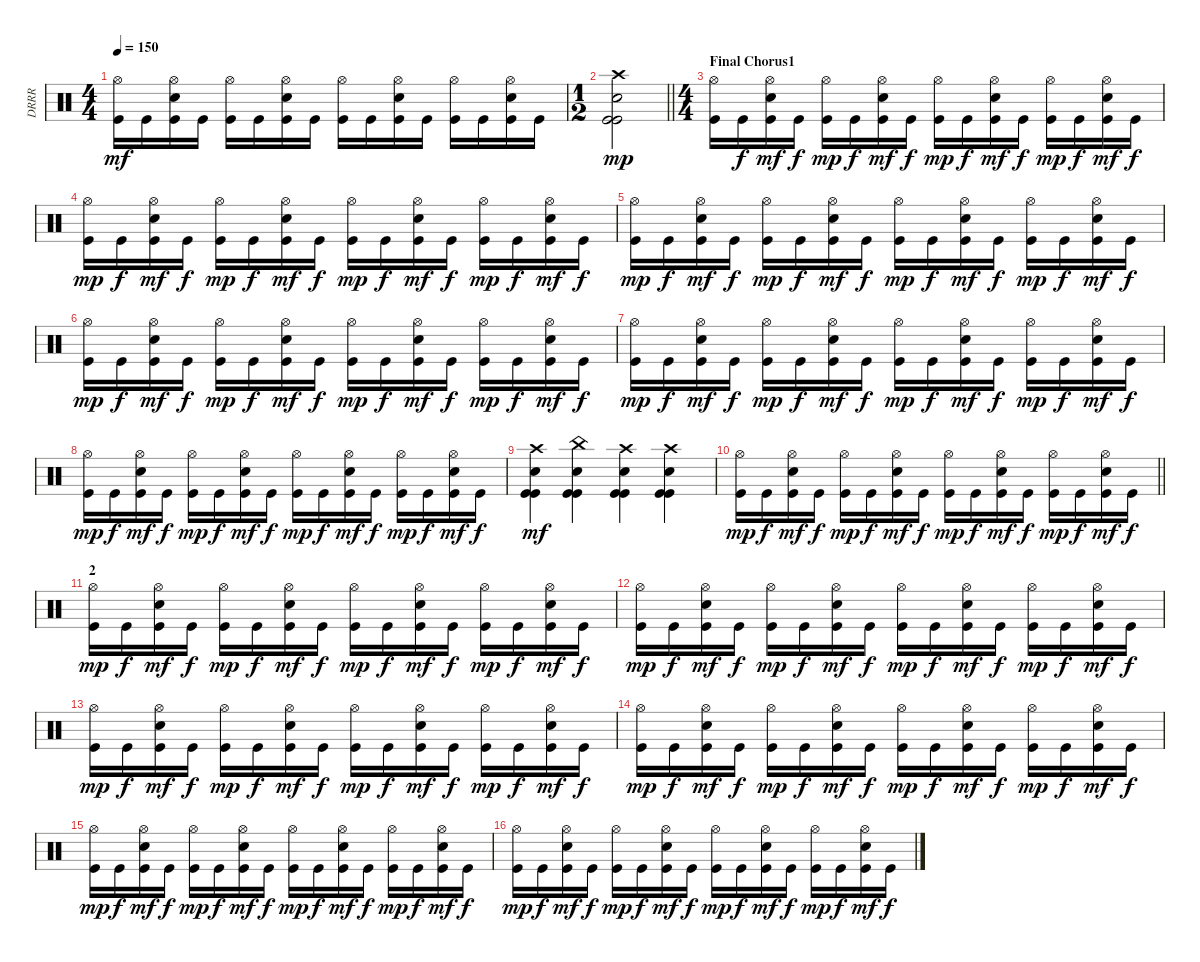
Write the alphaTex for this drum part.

\track ("DRRR" "DRRR") {instrument percussion}
\staff {score}
\articulation defaults
\ts (4 4)
\tempo 150
\clef neutral
\ks c
("Hi-Hat (open)" "Kick (hit)").16{dy mf} "Kick (hit)".16 ("Hi-Hat (open)" "Snare (hit) 2" "Kick (hit)").16 "Kick (hit)".16 ("Hi-Hat (open)" "Kick (hit)").16 "Kick (hit)".16 ("Hi-Hat (open)" "Snare (hit) 2" "Kick (hit)").16 "Kick (hit)".16 ("Hi-Hat (open)" "Kick (hit)").16 "Kick (hit)".16 ("Hi-Hat (open)" "Snare (hit) 2" "Kick (hit)").16 "Kick (hit)".16 ("Hi-Hat (open)" "Kick (hit)").16 "Kick (hit)".16 ("Hi-Hat (open)" "Snare (hit) 2" "Kick (hit)").16 "Kick (hit)".16 |
\ts (1 2)
\barLineRight lightlight
("Crash high (hit)" "Snare (hit) 2" "Kick (hit)" "Kick (hit)").2{dy mp} |
\ts (4 4)
\section ("" "Final Chorus1")
("Hi-Hat (open)" "Kick (hit)").16 "Kick (hit)".16{dy f} ("Hi-Hat (open)" "Snare (hit) 2" "Kick (hit)").16{dy mf} "Kick (hit)".16{dy f} ("Hi-Hat (open)" "Kick (hit)").16{dy mp} "Kick (hit)".16{dy f} ("Hi-Hat (open)" "Snare (hit) 2" "Kick (hit)").16{dy mf} "Kick (hit)".16{dy f} ("Hi-Hat (open)" "Kick (hit)").16{dy mp} "Kick (hit)".16{dy f} ("Hi-Hat (open)" "Snare (hit) 2" "Kick (hit)").16{dy mf} "Kick (hit)".16{dy f} ("Hi-Hat (open)" "Kick (hit)").16{dy mp} "Kick (hit)".16{dy f} ("Hi-Hat (open)" "Snare (hit) 2" "Kick (hit)").16{dy mf} "Kick (hit)".16{dy f} |
("Hi-Hat (open)" "Kick (hit)").16{dy mp} "Kick (hit)".16{dy f} ("Hi-Hat (open)" "Snare (hit) 2" "Kick (hit)").16{dy mf} "Kick (hit)".16{dy f} ("Hi-Hat (open)" "Kick (hit)").16{dy mp} "Kick (hit)".16{dy f} ("Hi-Hat (open)" "Snare (hit) 2" "Kick (hit)").16{dy mf} "Kick (hit)".16{dy f} ("Hi-Hat (open)" "Kick (hit)").16{dy mp} "Kick (hit)".16{dy f} ("Hi-Hat (open)" "Snare (hit) 2" "Kick (hit)").16{dy mf} "Kick (hit)".16{dy f} ("Hi-Hat (open)" "Kick (hit)").16{dy mp} "Kick (hit)".16{dy f} ("Hi-Hat (open)" "Snare (hit) 2" "Kick (hit)").16{dy mf} "Kick (hit)".16{dy f} |
("Hi-Hat (open)" "Kick (hit)").16{dy mp} "Kick (hit)".16{dy f} ("Hi-Hat (open)" "Snare (hit) 2" "Kick (hit)").16{dy mf} "Kick (hit)".16{dy f} ("Hi-Hat (open)" "Kick (hit)").16{dy mp} "Kick (hit)".16{dy f} ("Hi-Hat (open)" "Snare (hit) 2" "Kick (hit)").16{dy mf} "Kick (hit)".16{dy f} ("Hi-Hat (open)" "Kick (hit)").16{dy mp} "Kick (hit)".16{dy f} ("Hi-Hat (open)" "Snare (hit) 2" "Kick (hit)").16{dy mf} "Kick (hit)".16{dy f} ("Hi-Hat (open)" "Kick (hit)").16{dy mp} "Kick (hit)".16{dy f} ("Hi-Hat (open)" "Snare (hit) 2" "Kick (hit)").16{dy mf} "Kick (hit)".16{dy f} |
("Hi-Hat (open)" "Kick (hit)").16{dy mp} "Kick (hit)".16{dy f} ("Hi-Hat (open)" "Snare (hit) 2" "Kick (hit)").16{dy mf} "Kick (hit)".16{dy f} ("Hi-Hat (open)" "Kick (hit)").16{dy mp} "Kick (hit)".16{dy f} ("Hi-Hat (open)" "Snare (hit) 2" "Kick (hit)").16{dy mf} "Kick (hit)".16{dy f} ("Hi-Hat (open)" "Kick (hit)").16{dy mp} "Kick (hit)".16{dy f} ("Hi-Hat (open)" "Snare (hit) 2" "Kick (hit)").16{dy mf} "Kick (hit)".16{dy f} ("Hi-Hat (open)" "Kick (hit)").16{dy mp} "Kick (hit)".16{dy f} ("Hi-Hat (open)" "Snare (hit) 2" "Kick (hit)").16{dy mf} "Kick (hit)".16{dy f} |
("Hi-Hat (open)" "Kick (hit)").16{dy mp} "Kick (hit)".16{dy f} ("Hi-Hat (open)" "Snare (hit) 2" "Kick (hit)").16{dy mf} "Kick (hit)".16{dy f} ("Hi-Hat (open)" "Kick (hit)").16{dy mp} "Kick (hit)".16{dy f} ("Hi-Hat (open)" "Snare (hit) 2" "Kick (hit)").16{dy mf} "Kick (hit)".16{dy f} ("Hi-Hat (open)" "Kick (hit)").16{dy mp} "Kick (hit)".16{dy f} ("Hi-Hat (open)" "Snare (hit) 2" "Kick (hit)").16{dy mf} "Kick (hit)".16{dy f} ("Hi-Hat (open)" "Kick (hit)").16{dy mp} "Kick (hit)".16{dy f} ("Hi-Hat (open)" "Snare (hit) 2" "Kick (hit)").16{dy mf} "Kick (hit)".16{dy f} |
("Hi-Hat (open)" "Kick (hit)").16{dy mp} "Kick (hit)".16{dy f} ("Hi-Hat (open)" "Snare (hit) 2" "Kick (hit)").16{dy mf} "Kick (hit)".16{dy f} ("Hi-Hat (open)" "Kick (hit)").16{dy mp} "Kick (hit)".16{dy f} ("Hi-Hat (open)" "Snare (hit) 2" "Kick (hit)").16{dy mf} "Kick (hit)".16{dy f} ("Hi-Hat (open)" "Kick (hit)").16{dy mp} "Kick (hit)".16{dy f} ("Hi-Hat (open)" "Snare (hit) 2" "Kick (hit)").16{dy mf} "Kick (hit)".16{dy f} ("Hi-Hat (open)" "Kick (hit)").16{dy mp} "Kick (hit)".16{dy f} ("Hi-Hat (open)" "Snare (hit) 2" "Kick (hit)").16{dy mf} "Kick (hit)".16{dy f} |
("Crash high (hit)" "Snare (hit) 2" "Kick (hit)" "Kick (hit)").4{dy mf} ("China (hit)" "Snare (hit) 2" "Kick (hit)" "Kick (hit)").4 ("Crash high (hit)" "Snare (hit) 2" "Kick (hit)" "Kick (hit)").4 ("Crash high (hit)" "Snare (hit) 2" "Kick (hit)" "Kick (hit)").4 |
\barLineRight lightlight
("Hi-Hat (open)" "Kick (hit)").16{dy mp} "Kick (hit)".16{dy f} ("Hi-Hat (open)" "Snare (hit) 2" "Kick (hit)").16{dy mf} "Kick (hit)".16{dy f} ("Hi-Hat (open)" "Kick (hit)").16{dy mp} "Kick (hit)".16{dy f} ("Hi-Hat (open)" "Snare (hit) 2" "Kick (hit)").16{dy mf} "Kick (hit)".16{dy f} ("Hi-Hat (open)" "Kick (hit)").16{dy mp} "Kick (hit)".16{dy f} ("Hi-Hat (open)" "Snare (hit) 2" "Kick (hit)").16{dy mf} "Kick (hit)".16{dy f} ("Hi-Hat (open)" "Kick (hit)").16{dy mp} "Kick (hit)".16{dy f} ("Hi-Hat (open)" "Snare (hit) 2" "Kick (hit)").16{dy mf} "Kick (hit)".16{dy f} |
\section ("" "2")
("Hi-Hat (open)" "Kick (hit)").16{dy mp} "Kick (hit)".16{dy f} ("Hi-Hat (open)" "Snare (hit) 2" "Kick (hit)").16{dy mf} "Kick (hit)".16{dy f} ("Hi-Hat (open)" "Kick (hit)").16{dy mp} "Kick (hit)".16{dy f} ("Hi-Hat (open)" "Snare (hit) 2" "Kick (hit)").16{dy mf} "Kick (hit)".16{dy f} ("Hi-Hat (open)" "Kick (hit)").16{dy mp} "Kick (hit)".16{dy f} ("Hi-Hat (open)" "Snare (hit) 2" "Kick (hit)").16{dy mf} "Kick (hit)".16{dy f} ("Hi-Hat (open)" "Kick (hit)").16{dy mp} "Kick (hit)".16{dy f} ("Hi-Hat (open)" "Snare (hit) 2" "Kick (hit)").16{dy mf} "Kick (hit)".16{dy f} |
("Hi-Hat (open)" "Kick (hit)").16{dy mp} "Kick (hit)".16{dy f} ("Hi-Hat (open)" "Snare (hit) 2" "Kick (hit)").16{dy mf} "Kick (hit)".16{dy f} ("Hi-Hat (open)" "Kick (hit)").16{dy mp} "Kick (hit)".16{dy f} ("Hi-Hat (open)" "Snare (hit) 2" "Kick (hit)").16{dy mf} "Kick (hit)".16{dy f} ("Hi-Hat (open)" "Kick (hit)").16{dy mp} "Kick (hit)".16{dy f} ("Hi-Hat (open)" "Snare (hit) 2" "Kick (hit)").16{dy mf} "Kick (hit)".16{dy f} ("Hi-Hat (open)" "Kick (hit)").16{dy mp} "Kick (hit)".16{dy f} ("Hi-Hat (open)" "Snare (hit) 2" "Kick (hit)").16{dy mf} "Kick (hit)".16{dy f} |
("Hi-Hat (open)" "Kick (hit)").16{dy mp} "Kick (hit)".16{dy f} ("Hi-Hat (open)" "Snare (hit) 2" "Kick (hit)").16{dy mf} "Kick (hit)".16{dy f} ("Hi-Hat (open)" "Kick (hit)").16{dy mp} "Kick (hit)".16{dy f} ("Hi-Hat (open)" "Snare (hit) 2" "Kick (hit)").16{dy mf} "Kick (hit)".16{dy f} ("Hi-Hat (open)" "Kick (hit)").16{dy mp} "Kick (hit)".16{dy f} ("Hi-Hat (open)" "Snare (hit) 2" "Kick (hit)").16{dy mf} "Kick (hit)".16{dy f} ("Hi-Hat (open)" "Kick (hit)").16{dy mp} "Kick (hit)".16{dy f} ("Hi-Hat (open)" "Snare (hit) 2" "Kick (hit)").16{dy mf} "Kick (hit)".16{dy f} |
("Hi-Hat (open)" "Kick (hit)").16{dy mp} "Kick (hit)".16{dy f} ("Hi-Hat (open)" "Snare (hit) 2" "Kick (hit)").16{dy mf} "Kick (hit)".16{dy f} ("Hi-Hat (open)" "Kick (hit)").16{dy mp} "Kick (hit)".16{dy f} ("Hi-Hat (open)" "Snare (hit) 2" "Kick (hit)").16{dy mf} "Kick (hit)".16{dy f} ("Hi-Hat (open)" "Kick (hit)").16{dy mp} "Kick (hit)".16{dy f} ("Hi-Hat (open)" "Snare (hit) 2" "Kick (hit)").16{dy mf} "Kick (hit)".16{dy f} ("Hi-Hat (open)" "Kick (hit)").16{dy mp} "Kick (hit)".16{dy f} ("Hi-Hat (open)" "Snare (hit) 2" "Kick (hit)").16{dy mf} "Kick (hit)".16{dy f} |
("Hi-Hat (open)" "Kick (hit)").16{dy mp} "Kick (hit)".16{dy f} ("Hi-Hat (open)" "Snare (hit) 2" "Kick (hit)").16{dy mf} "Kick (hit)".16{dy f} ("Hi-Hat (open)" "Kick (hit)").16{dy mp} "Kick (hit)".16{dy f} ("Hi-Hat (open)" "Snare (hit) 2" "Kick (hit)").16{dy mf} "Kick (hit)".16{dy f} ("Hi-Hat (open)" "Kick (hit)").16{dy mp} "Kick (hit)".16{dy f} ("Hi-Hat (open)" "Snare (hit) 2" "Kick (hit)").16{dy mf} "Kick (hit)".16{dy f} ("Hi-Hat (open)" "Kick (hit)").16{dy mp} "Kick (hit)".16{dy f} ("Hi-Hat (open)" "Snare (hit) 2" "Kick (hit)").16{dy mf} "Kick (hit)".16{dy f} |
("Hi-Hat (open)" "Kick (hit)").16{dy mp} "Kick (hit)".16{dy f} ("Hi-Hat (open)" "Snare (hit) 2" "Kick (hit)").16{dy mf} "Kick (hit)".16{dy f} ("Hi-Hat (open)" "Kick (hit)").16{dy mp} "Kick (hit)".16{dy f} ("Hi-Hat (open)" "Snare (hit) 2" "Kick (hit)").16{dy mf} "Kick (hit)".16{dy f} ("Hi-Hat (open)" "Kick (hit)").16{dy mp} "Kick (hit)".16{dy f} ("Hi-Hat (open)" "Snare (hit) 2" "Kick (hit)").16{dy mf} "Kick (hit)".16{dy f} ("Hi-Hat (open)" "Kick (hit)").16{dy mp} "Kick (hit)".16{dy f} ("Hi-Hat (open)" "Snare (hit) 2" "Kick (hit)").16{dy mf} "Kick (hit)".16{dy f}
